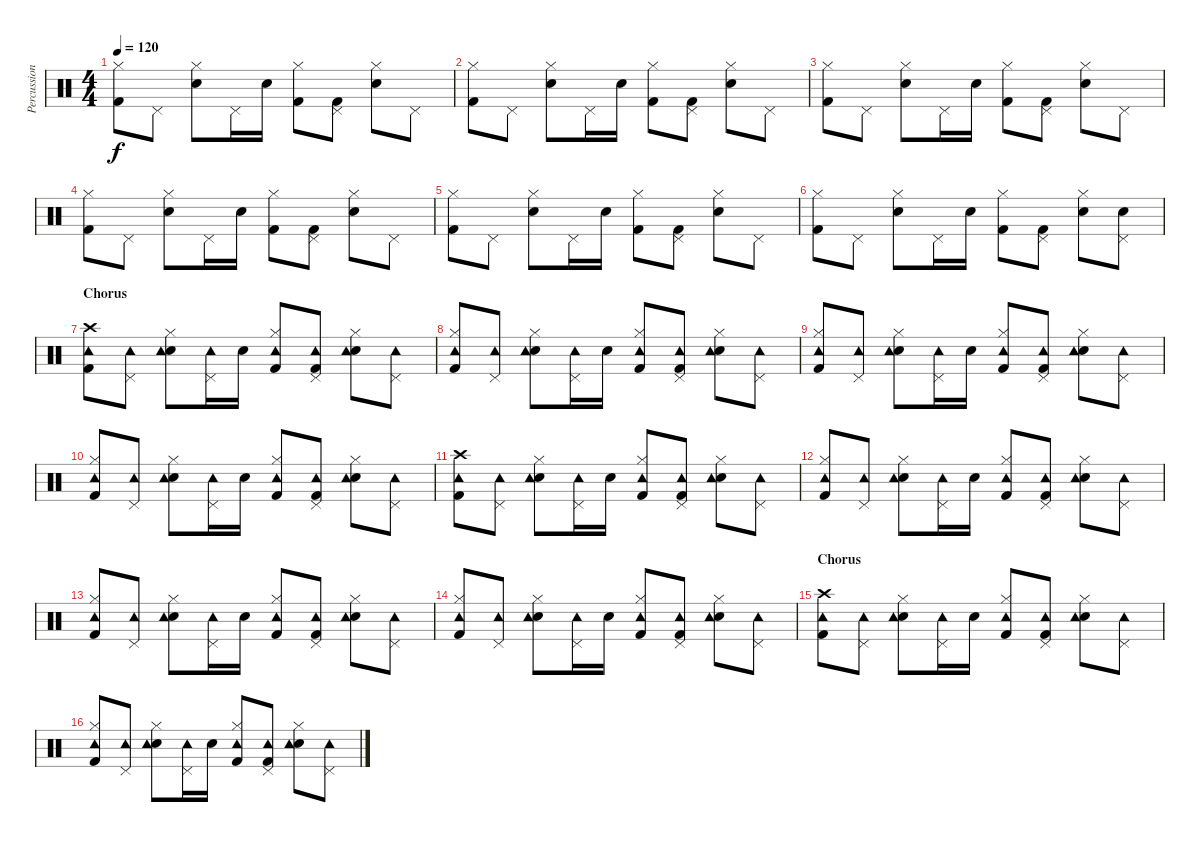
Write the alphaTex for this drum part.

\track ("Percussion" "Percussion") {instrument percussion}
\staff {score}
\articulation defaults
\ts (4 4)
\tempo 120
\clef neutral
\ks c
("Kick (hit) 2" "Hi-Hat (closed)").8{dy f} "Pedal Hi-Hat (hit)".8 ("Electric Snare (hit)" "Hi-Hat (closed)").8 "Pedal Hi-Hat (hit)".16 "Electric Snare (hit)".16 ("Kick (hit) 2" "Hi-Hat (closed)").8 ("Kick (hit) 2" "Pedal Hi-Hat (hit)").8 ("Electric Snare (hit)" "Hi-Hat (closed)").8 "Pedal Hi-Hat (hit)".8 |
("Kick (hit) 2" "Hi-Hat (closed)").8 "Pedal Hi-Hat (hit)".8 ("Electric Snare (hit)" "Hi-Hat (closed)").8 "Pedal Hi-Hat (hit)".16 "Electric Snare (hit)".16 ("Kick (hit) 2" "Hi-Hat (closed)").8 ("Kick (hit) 2" "Pedal Hi-Hat (hit)").8 ("Electric Snare (hit)" "Hi-Hat (closed)").8 "Pedal Hi-Hat (hit)".8 |
("Kick (hit) 2" "Hi-Hat (closed)").8 "Pedal Hi-Hat (hit)".8 ("Electric Snare (hit)" "Hi-Hat (closed)").8 "Pedal Hi-Hat (hit)".16 "Electric Snare (hit)".16 ("Kick (hit) 2" "Hi-Hat (closed)").8 ("Kick (hit) 2" "Pedal Hi-Hat (hit)").8 ("Electric Snare (hit)" "Hi-Hat (closed)").8 "Pedal Hi-Hat (hit)".8 |
("Kick (hit) 2" "Hi-Hat (closed)").8 "Pedal Hi-Hat (hit)".8 ("Electric Snare (hit)" "Hi-Hat (closed)").8 "Pedal Hi-Hat (hit)".16 "Electric Snare (hit)".16 ("Kick (hit) 2" "Hi-Hat (closed)").8 ("Kick (hit) 2" "Pedal Hi-Hat (hit)").8 ("Electric Snare (hit)" "Hi-Hat (closed)").8 "Pedal Hi-Hat (hit)".8 |
("Kick (hit) 2" "Hi-Hat (closed)").8 "Pedal Hi-Hat (hit)".8 ("Electric Snare (hit)" "Hi-Hat (closed)").8 "Pedal Hi-Hat (hit)".16 "Electric Snare (hit)".16 ("Kick (hit) 2" "Hi-Hat (closed)").8 ("Kick (hit) 2" "Pedal Hi-Hat (hit)").8 ("Electric Snare (hit)" "Hi-Hat (closed)").8 "Pedal Hi-Hat (hit)".8 |
("Kick (hit) 2" "Hi-Hat (closed)").8 "Pedal Hi-Hat (hit)".8 ("Electric Snare (hit)" "Hi-Hat (closed)").8 "Pedal Hi-Hat (hit)".16 "Electric Snare (hit)".16 ("Kick (hit) 2" "Hi-Hat (closed)").8 ("Kick (hit) 2" "Pedal Hi-Hat (hit)").8 ("Electric Snare (hit)" "Hi-Hat (closed)").8 ("Electric Snare (hit)" "Pedal Hi-Hat (hit)").8 |
\section ("" "Chorus")
("Kick (hit) 2" "Tambourine (hit)" "Crash high (hit)").8 ("Tambourine (hit)" "Pedal Hi-Hat (hit)").8 ("Electric Snare (hit)" "Tambourine (hit)" "Hi-Hat (closed)").8 ("Tambourine (hit)" "Pedal Hi-Hat (hit)").16 "Electric Snare (hit)".16 ("Kick (hit) 2" "Tambourine (hit)" "Hi-Hat (closed)").8 ("Kick (hit) 2" "Tambourine (hit)" "Pedal Hi-Hat (hit)").8 ("Electric Snare (hit)" "Tambourine (hit)" "Hi-Hat (closed)").8 ("Tambourine (hit)" "Pedal Hi-Hat (hit)").8 |
("Kick (hit) 2" "Tambourine (hit)" "Hi-Hat (closed)").8 ("Tambourine (hit)" "Pedal Hi-Hat (hit)").8 ("Electric Snare (hit)" "Tambourine (hit)" "Hi-Hat (closed)").8 ("Tambourine (hit)" "Pedal Hi-Hat (hit)").16 "Electric Snare (hit)".16 ("Kick (hit) 2" "Tambourine (hit)" "Hi-Hat (closed)").8 ("Kick (hit) 2" "Tambourine (hit)" "Pedal Hi-Hat (hit)").8 ("Electric Snare (hit)" "Tambourine (hit)" "Hi-Hat (closed)").8 ("Tambourine (hit)" "Pedal Hi-Hat (hit)").8 |
("Kick (hit) 2" "Tambourine (hit)" "Hi-Hat (closed)").8 ("Tambourine (hit)" "Pedal Hi-Hat (hit)").8 ("Electric Snare (hit)" "Tambourine (hit)" "Hi-Hat (closed)").8 ("Tambourine (hit)" "Pedal Hi-Hat (hit)").16 "Electric Snare (hit)".16 ("Kick (hit) 2" "Tambourine (hit)" "Hi-Hat (closed)").8 ("Kick (hit) 2" "Tambourine (hit)" "Pedal Hi-Hat (hit)").8 ("Electric Snare (hit)" "Tambourine (hit)" "Hi-Hat (closed)").8 ("Tambourine (hit)" "Pedal Hi-Hat (hit)").8 |
("Kick (hit) 2" "Tambourine (hit)" "Hi-Hat (closed)").8 ("Tambourine (hit)" "Pedal Hi-Hat (hit)").8 ("Electric Snare (hit)" "Tambourine (hit)" "Hi-Hat (closed)").8 ("Tambourine (hit)" "Pedal Hi-Hat (hit)").16 "Electric Snare (hit)".16 ("Kick (hit) 2" "Tambourine (hit)" "Hi-Hat (closed)").8 ("Kick (hit) 2" "Tambourine (hit)" "Pedal Hi-Hat (hit)").8 ("Electric Snare (hit)" "Tambourine (hit)" "Hi-Hat (closed)").8 ("Tambourine (hit)" "Pedal Hi-Hat (hit)").8 |
("Kick (hit) 2" "Tambourine (hit)" "Crash high (hit)").8 ("Tambourine (hit)" "Pedal Hi-Hat (hit)").8 ("Electric Snare (hit)" "Tambourine (hit)" "Hi-Hat (closed)").8 ("Tambourine (hit)" "Pedal Hi-Hat (hit)").16 "Electric Snare (hit)".16 ("Kick (hit) 2" "Tambourine (hit)" "Hi-Hat (closed)").8 ("Kick (hit) 2" "Tambourine (hit)" "Pedal Hi-Hat (hit)").8 ("Electric Snare (hit)" "Tambourine (hit)" "Hi-Hat (closed)").8 ("Tambourine (hit)" "Pedal Hi-Hat (hit)").8 |
("Kick (hit) 2" "Tambourine (hit)" "Hi-Hat (closed)").8 ("Tambourine (hit)" "Pedal Hi-Hat (hit)").8 ("Electric Snare (hit)" "Tambourine (hit)" "Hi-Hat (closed)").8 ("Tambourine (hit)" "Pedal Hi-Hat (hit)").16 "Electric Snare (hit)".16 ("Kick (hit) 2" "Tambourine (hit)" "Hi-Hat (closed)").8 ("Kick (hit) 2" "Tambourine (hit)" "Pedal Hi-Hat (hit)").8 ("Electric Snare (hit)" "Tambourine (hit)" "Hi-Hat (closed)").8 ("Tambourine (hit)" "Pedal Hi-Hat (hit)").8 |
("Kick (hit) 2" "Tambourine (hit)" "Hi-Hat (closed)").8 ("Tambourine (hit)" "Pedal Hi-Hat (hit)").8 ("Electric Snare (hit)" "Tambourine (hit)" "Hi-Hat (closed)").8 ("Tambourine (hit)" "Pedal Hi-Hat (hit)").16 "Electric Snare (hit)".16 ("Kick (hit) 2" "Tambourine (hit)" "Hi-Hat (closed)").8 ("Kick (hit) 2" "Tambourine (hit)" "Pedal Hi-Hat (hit)").8 ("Electric Snare (hit)" "Tambourine (hit)" "Hi-Hat (closed)").8 ("Tambourine (hit)" "Pedal Hi-Hat (hit)").8 |
("Kick (hit) 2" "Tambourine (hit)" "Hi-Hat (closed)").8 ("Tambourine (hit)" "Pedal Hi-Hat (hit)").8 ("Electric Snare (hit)" "Tambourine (hit)" "Hi-Hat (closed)").8 ("Tambourine (hit)" "Pedal Hi-Hat (hit)").16 "Electric Snare (hit)".16 ("Kick (hit) 2" "Tambourine (hit)" "Hi-Hat (closed)").8 ("Kick (hit) 2" "Tambourine (hit)" "Pedal Hi-Hat (hit)").8 ("Electric Snare (hit)" "Tambourine (hit)" "Hi-Hat (closed)").8 ("Tambourine (hit)" "Pedal Hi-Hat (hit)").8 |
\section ("" "Chorus")
("Kick (hit) 2" "Tambourine (hit)" "Crash high (hit)").8 ("Tambourine (hit)" "Pedal Hi-Hat (hit)").8 ("Electric Snare (hit)" "Tambourine (hit)" "Hi-Hat (closed)").8 ("Tambourine (hit)" "Pedal Hi-Hat (hit)").16 "Electric Snare (hit)".16 ("Kick (hit) 2" "Tambourine (hit)" "Hi-Hat (closed)").8 ("Kick (hit) 2" "Tambourine (hit)" "Pedal Hi-Hat (hit)").8 ("Electric Snare (hit)" "Tambourine (hit)" "Hi-Hat (closed)").8 ("Tambourine (hit)" "Pedal Hi-Hat (hit)").8 |
("Kick (hit) 2" "Tambourine (hit)" "Hi-Hat (closed)").8 ("Tambourine (hit)" "Pedal Hi-Hat (hit)").8 ("Electric Snare (hit)" "Tambourine (hit)" "Hi-Hat (closed)").8 ("Tambourine (hit)" "Pedal Hi-Hat (hit)").16 "Electric Snare (hit)".16 ("Kick (hit) 2" "Tambourine (hit)" "Hi-Hat (closed)").8 ("Kick (hit) 2" "Tambourine (hit)" "Pedal Hi-Hat (hit)").8 ("Electric Snare (hit)" "Tambourine (hit)" "Hi-Hat (closed)").8 ("Tambourine (hit)" "Pedal Hi-Hat (hit)").8
